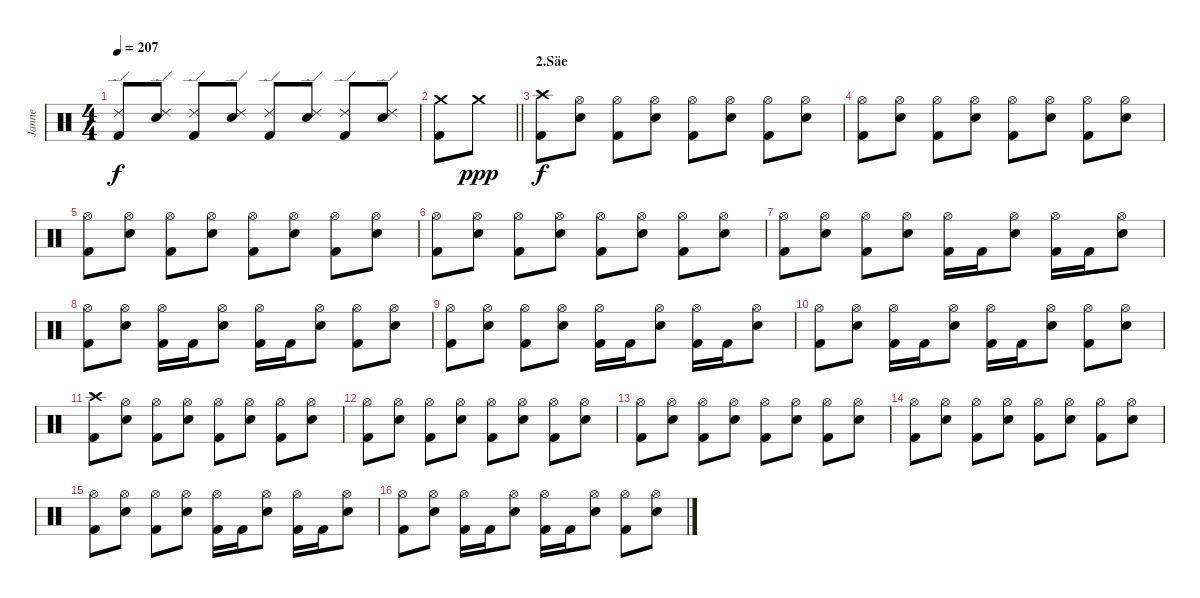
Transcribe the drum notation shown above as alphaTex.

\track ("Janne" "Janne") {instrument percussion}
\staff {score}
\articulation defaults
\ts (4 4)
\tempo 207
\clef neutral
\ks c
("Ride (edge) 2" "Kick (hit) 2").8{dy f} ("Ride (edge) 2" "Electric Snare (hit)").8 ("Ride (edge) 2" "Kick (hit) 2").8 ("Ride (edge) 2" "Electric Snare (hit)").8 ("Ride (edge) 2" "Kick (hit) 2").8 ("Ride (edge) 2" "Electric Snare (hit)").8 ("Ride (edge) 2" "Kick (hit) 2").8 ("Ride (edge) 2" "Electric Snare (hit)").8 |
\barLineRight lightlight
("Crash medium (hit)" "Kick (hit) 2").8 "Crash medium (hit)".8{dy ppp} |
\section ("" "2.Säe")
("Crash high (hit)" "Kick (hit) 2").8{dy f} ("Hi-Hat (open)" "Electric Snare (hit)").8 ("Hi-Hat (open)" "Kick (hit) 2").8 ("Hi-Hat (open)" "Electric Snare (hit)").8 ("Hi-Hat (open)" "Kick (hit) 2").8 ("Hi-Hat (open)" "Electric Snare (hit)").8 ("Hi-Hat (open)" "Kick (hit) 2").8 ("Hi-Hat (open)" "Electric Snare (hit)").8 |
("Hi-Hat (open)" "Kick (hit) 2").8 ("Hi-Hat (open)" "Electric Snare (hit)").8 ("Hi-Hat (open)" "Kick (hit) 2").8 ("Hi-Hat (open)" "Electric Snare (hit)").8 ("Hi-Hat (open)" "Kick (hit) 2").8 ("Hi-Hat (open)" "Electric Snare (hit)").8 ("Hi-Hat (open)" "Kick (hit) 2").8 ("Hi-Hat (open)" "Electric Snare (hit)").8 |
("Hi-Hat (open)" "Kick (hit) 2").8 ("Hi-Hat (open)" "Electric Snare (hit)").8 ("Hi-Hat (open)" "Kick (hit) 2").8 ("Hi-Hat (open)" "Electric Snare (hit)").8 ("Hi-Hat (open)" "Kick (hit) 2").8 ("Hi-Hat (open)" "Electric Snare (hit)").8 ("Hi-Hat (open)" "Kick (hit) 2").8 ("Hi-Hat (open)" "Electric Snare (hit)").8 |
("Hi-Hat (open)" "Kick (hit) 2").8 ("Hi-Hat (open)" "Electric Snare (hit)").8 ("Hi-Hat (open)" "Kick (hit) 2").8 ("Hi-Hat (open)" "Electric Snare (hit)").8 ("Hi-Hat (open)" "Kick (hit) 2").8 ("Hi-Hat (open)" "Electric Snare (hit)").8 ("Hi-Hat (open)" "Kick (hit) 2").8 ("Hi-Hat (open)" "Electric Snare (hit)").8 |
("Hi-Hat (open)" "Kick (hit) 2").8 ("Hi-Hat (open)" "Electric Snare (hit)").8 ("Hi-Hat (open)" "Kick (hit) 2").8 ("Hi-Hat (open)" "Electric Snare (hit)").8 ("Hi-Hat (open)" "Kick (hit) 2").16 "Kick (hit) 2".16 ("Hi-Hat (open)" "Electric Snare (hit)").8 ("Hi-Hat (open)" "Kick (hit) 2").16 "Kick (hit) 2".16 ("Hi-Hat (open)" "Electric Snare (hit)").8 |
("Hi-Hat (open)" "Kick (hit) 2").8 ("Hi-Hat (open)" "Electric Snare (hit)").8 ("Hi-Hat (open)" "Kick (hit) 2").16 "Kick (hit) 2".16 ("Hi-Hat (open)" "Electric Snare (hit)").8 ("Hi-Hat (open)" "Kick (hit) 2").16 "Kick (hit) 2".16 ("Hi-Hat (open)" "Electric Snare (hit)").8 ("Hi-Hat (open)" "Kick (hit) 2").8 ("Hi-Hat (open)" "Electric Snare (hit)").8 |
("Hi-Hat (open)" "Kick (hit) 2").8 ("Hi-Hat (open)" "Electric Snare (hit)").8 ("Hi-Hat (open)" "Kick (hit) 2").8 ("Hi-Hat (open)" "Electric Snare (hit)").8 ("Hi-Hat (open)" "Kick (hit) 2").16 "Kick (hit) 2".16 ("Hi-Hat (open)" "Electric Snare (hit)").8 ("Hi-Hat (open)" "Kick (hit) 2").16 "Kick (hit) 2".16 ("Hi-Hat (open)" "Electric Snare (hit)").8 |
("Hi-Hat (open)" "Kick (hit) 2").8 ("Hi-Hat (open)" "Electric Snare (hit)").8 ("Hi-Hat (open)" "Kick (hit) 2").16 "Kick (hit) 2".16 ("Hi-Hat (open)" "Electric Snare (hit)").8 ("Hi-Hat (open)" "Kick (hit) 2").16 "Kick (hit) 2".16 ("Hi-Hat (open)" "Electric Snare (hit)").8 ("Hi-Hat (open)" "Kick (hit) 2").8 ("Hi-Hat (open)" "Electric Snare (hit)").8 |
("Crash high (hit)" "Kick (hit) 2").8 ("Hi-Hat (open)" "Electric Snare (hit)").8 ("Hi-Hat (open)" "Kick (hit) 2").8 ("Hi-Hat (open)" "Electric Snare (hit)").8 ("Hi-Hat (open)" "Kick (hit) 2").8 ("Hi-Hat (open)" "Electric Snare (hit)").8 ("Hi-Hat (open)" "Kick (hit) 2").8 ("Hi-Hat (open)" "Electric Snare (hit)").8 |
("Hi-Hat (open)" "Kick (hit) 2").8 ("Hi-Hat (open)" "Electric Snare (hit)").8 ("Hi-Hat (open)" "Kick (hit) 2").8 ("Hi-Hat (open)" "Electric Snare (hit)").8 ("Hi-Hat (open)" "Kick (hit) 2").8 ("Hi-Hat (open)" "Electric Snare (hit)").8 ("Hi-Hat (open)" "Kick (hit) 2").8 ("Hi-Hat (open)" "Electric Snare (hit)").8 |
("Hi-Hat (open)" "Kick (hit) 2").8 ("Hi-Hat (open)" "Electric Snare (hit)").8 ("Hi-Hat (open)" "Kick (hit) 2").8 ("Hi-Hat (open)" "Electric Snare (hit)").8 ("Hi-Hat (open)" "Kick (hit) 2").8 ("Hi-Hat (open)" "Electric Snare (hit)").8 ("Hi-Hat (open)" "Kick (hit) 2").8 ("Hi-Hat (open)" "Electric Snare (hit)").8 |
("Hi-Hat (open)" "Kick (hit) 2").8 ("Hi-Hat (open)" "Electric Snare (hit)").8 ("Hi-Hat (open)" "Kick (hit) 2").8 ("Hi-Hat (open)" "Electric Snare (hit)").8 ("Hi-Hat (open)" "Kick (hit) 2").8 ("Hi-Hat (open)" "Electric Snare (hit)").8 ("Hi-Hat (open)" "Kick (hit) 2").8 ("Hi-Hat (open)" "Electric Snare (hit)").8 |
("Hi-Hat (open)" "Kick (hit) 2").8 ("Hi-Hat (open)" "Electric Snare (hit)").8 ("Hi-Hat (open)" "Kick (hit) 2").8 ("Hi-Hat (open)" "Electric Snare (hit)").8 ("Hi-Hat (open)" "Kick (hit) 2").16 "Kick (hit) 2".16 ("Hi-Hat (open)" "Electric Snare (hit)").8 ("Hi-Hat (open)" "Kick (hit) 2").16 "Kick (hit) 2".16 ("Hi-Hat (open)" "Electric Snare (hit)").8 |
("Hi-Hat (open)" "Kick (hit) 2").8 ("Hi-Hat (open)" "Electric Snare (hit)").8 ("Hi-Hat (open)" "Kick (hit) 2").16 "Kick (hit) 2".16 ("Hi-Hat (open)" "Electric Snare (hit)").8 ("Hi-Hat (open)" "Kick (hit) 2").16 "Kick (hit) 2".16 ("Hi-Hat (open)" "Electric Snare (hit)").8 ("Hi-Hat (open)" "Kick (hit) 2").8 ("Hi-Hat (open)" "Electric Snare (hit)").8
